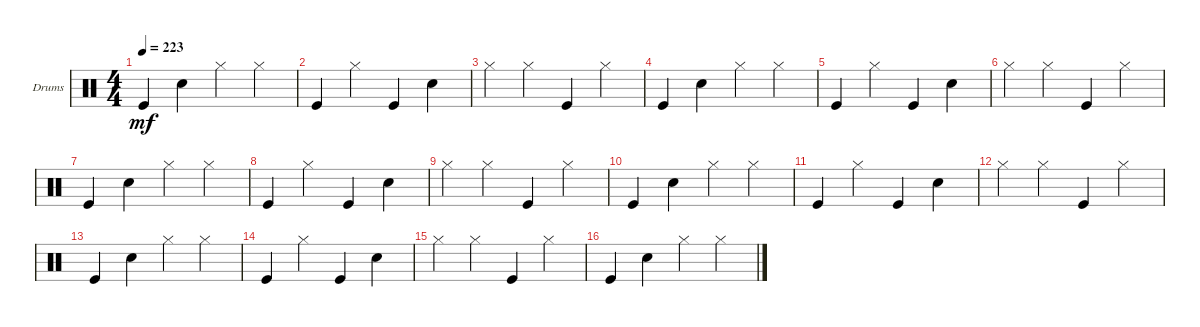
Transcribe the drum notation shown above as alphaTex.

\defaultSystemsLayout 4
\bracketExtendMode groupsimilarinstruments
\firstSystemTrackNameOrientation horizontal
\otherSystemsTrackNameOrientation horizontal
\track ("Drumkit" "Drums") {instrument percussion}
\staff {score}
\articulation defaults
\ts (4 4)
\tempo 223
\clef neutral
\ks c "Kick (hit)".4{dy mf} "Snare (hit) 2".4 "Hi-Hat (closed)".4 "Hi-Hat (closed)".4
|
"Kick (hit)".4 "Hi-Hat (closed)".4 "Kick (hit)".4 "Snare (hit) 2".4 |
"Hi-Hat (closed)".4 "Hi-Hat (closed)".4 "Kick (hit)".4 "Hi-Hat (closed)".4 |
"Kick (hit)".4 "Snare (hit) 2".4 "Hi-Hat (closed)".4 "Hi-Hat (closed)".4 |
"Kick (hit)".4 "Hi-Hat (closed)".4 "Kick (hit)".4 "Snare (hit) 2".4 |
"Hi-Hat (closed)".4 "Hi-Hat (closed)".4 "Kick (hit)".4 "Hi-Hat (closed)".4 |
"Kick (hit)".4 "Snare (hit) 2".4 "Hi-Hat (closed)".4 "Hi-Hat (closed)".4 |
"Kick (hit)".4 "Hi-Hat (closed)".4 "Kick (hit)".4 "Snare (hit) 2".4 |
"Hi-Hat (closed)".4 "Hi-Hat (closed)".4 "Kick (hit)".4 "Hi-Hat (closed)".4 |
"Kick (hit)".4 "Snare (hit) 2".4 "Hi-Hat (closed)".4 "Hi-Hat (closed)".4 |
"Kick (hit)".4 "Hi-Hat (closed)".4 "Kick (hit)".4 "Snare (hit) 2".4 |
"Hi-Hat (closed)".4 "Hi-Hat (closed)".4 "Kick (hit)".4 "Hi-Hat (closed)".4 |
"Kick (hit)".4 "Snare (hit) 2".4 "Hi-Hat (closed)".4 "Hi-Hat (closed)".4 |
"Kick (hit)".4 "Hi-Hat (closed)".4 "Kick (hit)".4 "Snare (hit) 2".4 |
"Hi-Hat (closed)".4 "Hi-Hat (closed)".4 "Kick (hit)".4 "Hi-Hat (closed)".4 |
"Kick (hit)".4 "Snare (hit) 2".4 "Hi-Hat (closed)".4 "Hi-Hat (closed)".4
